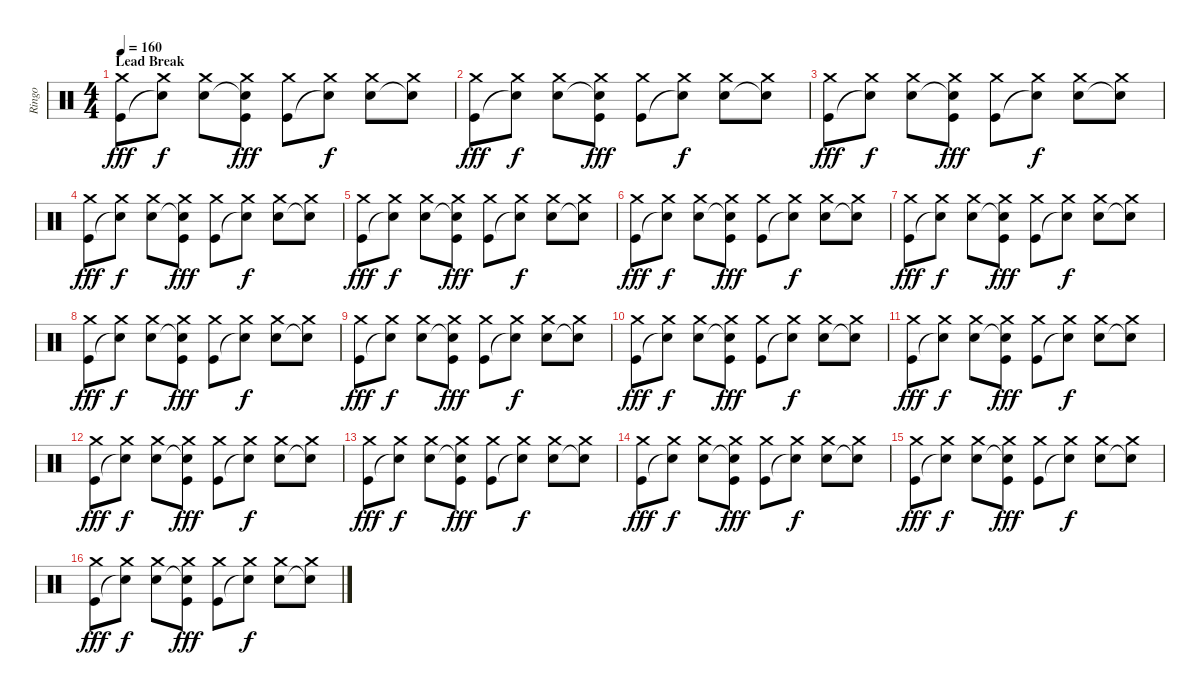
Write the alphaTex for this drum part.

\track ("Ringo" "Ringo") {instrument percussion}
\staff {score}
\articulation defaults
\ts (4 4)
\section ("" "Lead Break")
\tempo 160
\clef neutral
\ks c
("Crash medium (hit)" "Kick (hit)").8{dy fff} ("Crash medium (hit)" "Snare (hit)"{t}).8{dy f} ("Crash medium (hit)" "Snare (hit) 2").8 ("Crash medium (hit)" "Snare (hit)"{t} "Kick (hit)").8{dy fff} ("Crash medium (hit)" "Kick (hit)").8 ("Crash medium (hit)" "Snare (hit)"{t}).8{dy f} ("Crash medium (hit)" "Snare (hit) 2").8 ("Crash medium (hit)" "Snare (hit)"{t}).8 |
("Crash medium (hit)" "Kick (hit)").8{dy fff} ("Crash medium (hit)" "Snare (hit)"{t}).8{dy f} ("Crash medium (hit)" "Snare (hit) 2").8 ("Crash medium (hit)" "Snare (hit)"{t} "Kick (hit)").8{dy fff} ("Crash medium (hit)" "Kick (hit)").8 ("Crash medium (hit)" "Snare (hit)"{t}).8{dy f} ("Crash medium (hit)" "Snare (hit) 2").8 ("Crash medium (hit)" "Snare (hit)"{t}).8 |
("Crash medium (hit)" "Kick (hit)").8{dy fff} ("Crash medium (hit)" "Snare (hit)"{t}).8{dy f} ("Crash medium (hit)" "Snare (hit) 2").8 ("Crash medium (hit)" "Snare (hit)"{t} "Kick (hit)").8{dy fff} ("Crash medium (hit)" "Kick (hit)").8 ("Crash medium (hit)" "Snare (hit)"{t}).8{dy f} ("Crash medium (hit)" "Snare (hit) 2").8 ("Crash medium (hit)" "Snare (hit)"{t}).8 |
("Crash medium (hit)" "Kick (hit)").8{dy fff} ("Crash medium (hit)" "Snare (hit)"{t}).8{dy f} ("Crash medium (hit)" "Snare (hit) 2").8 ("Crash medium (hit)" "Snare (hit)"{t} "Kick (hit)").8{dy fff} ("Crash medium (hit)" "Kick (hit)").8 ("Crash medium (hit)" "Snare (hit)"{t}).8{dy f} ("Crash medium (hit)" "Snare (hit) 2").8 ("Crash medium (hit)" "Snare (hit)"{t}).8 |
("Crash medium (hit)" "Kick (hit)").8{dy fff} ("Crash medium (hit)" "Snare (hit)"{t}).8{dy f} ("Crash medium (hit)" "Snare (hit) 2").8 ("Crash medium (hit)" "Snare (hit)"{t} "Kick (hit)").8{dy fff} ("Crash medium (hit)" "Kick (hit)").8 ("Crash medium (hit)" "Snare (hit)"{t}).8{dy f} ("Crash medium (hit)" "Snare (hit) 2").8 ("Crash medium (hit)" "Snare (hit)"{t}).8 |
("Crash medium (hit)" "Kick (hit)").8{dy fff} ("Crash medium (hit)" "Snare (hit)"{t}).8{dy f} ("Crash medium (hit)" "Snare (hit) 2").8 ("Crash medium (hit)" "Snare (hit)"{t} "Kick (hit)").8{dy fff} ("Crash medium (hit)" "Kick (hit)").8 ("Crash medium (hit)" "Snare (hit)"{t}).8{dy f} ("Crash medium (hit)" "Snare (hit) 2").8 ("Crash medium (hit)" "Snare (hit)"{t}).8 |
("Crash medium (hit)" "Kick (hit)").8{dy fff} ("Crash medium (hit)" "Snare (hit)"{t}).8{dy f} ("Crash medium (hit)" "Snare (hit) 2").8 ("Crash medium (hit)" "Snare (hit)"{t} "Kick (hit)").8{dy fff} ("Crash medium (hit)" "Kick (hit)").8 ("Crash medium (hit)" "Snare (hit)"{t}).8{dy f} ("Crash medium (hit)" "Snare (hit) 2").8 ("Crash medium (hit)" "Snare (hit)"{t}).8 |
("Crash medium (hit)" "Kick (hit)").8{dy fff} ("Crash medium (hit)" "Snare (hit)"{t}).8{dy f} ("Crash medium (hit)" "Snare (hit) 2").8 ("Crash medium (hit)" "Snare (hit)"{t} "Kick (hit)").8{dy fff} ("Crash medium (hit)" "Kick (hit)").8 ("Crash medium (hit)" "Snare (hit)"{t}).8{dy f} ("Crash medium (hit)" "Snare (hit) 2").8 ("Crash medium (hit)" "Snare (hit)"{t}).8 |
("Crash medium (hit)" "Kick (hit)").8{dy fff} ("Crash medium (hit)" "Snare (hit)"{t}).8{dy f} ("Crash medium (hit)" "Snare (hit) 2").8 ("Crash medium (hit)" "Snare (hit)"{t} "Kick (hit)").8{dy fff} ("Crash medium (hit)" "Kick (hit)").8 ("Crash medium (hit)" "Snare (hit)"{t}).8{dy f} ("Crash medium (hit)" "Snare (hit) 2").8 ("Crash medium (hit)" "Snare (hit)"{t}).8 |
("Crash medium (hit)" "Kick (hit)").8{dy fff} ("Crash medium (hit)" "Snare (hit)"{t}).8{dy f} ("Crash medium (hit)" "Snare (hit) 2").8 ("Crash medium (hit)" "Snare (hit)"{t} "Kick (hit)").8{dy fff} ("Crash medium (hit)" "Kick (hit)").8 ("Crash medium (hit)" "Snare (hit)"{t}).8{dy f} ("Crash medium (hit)" "Snare (hit) 2").8 ("Crash medium (hit)" "Snare (hit)"{t}).8 |
("Crash medium (hit)" "Kick (hit)").8{dy fff} ("Crash medium (hit)" "Snare (hit)"{t}).8{dy f} ("Crash medium (hit)" "Snare (hit) 2").8 ("Crash medium (hit)" "Snare (hit)"{t} "Kick (hit)").8{dy fff} ("Crash medium (hit)" "Kick (hit)").8 ("Crash medium (hit)" "Snare (hit)"{t}).8{dy f} ("Crash medium (hit)" "Snare (hit) 2").8 ("Crash medium (hit)" "Snare (hit)"{t}).8 |
("Crash medium (hit)" "Kick (hit)").8{dy fff} ("Crash medium (hit)" "Snare (hit)"{t}).8{dy f} ("Crash medium (hit)" "Snare (hit) 2").8 ("Crash medium (hit)" "Snare (hit)"{t} "Kick (hit)").8{dy fff} ("Crash medium (hit)" "Kick (hit)").8 ("Crash medium (hit)" "Snare (hit)"{t}).8{dy f} ("Crash medium (hit)" "Snare (hit) 2").8 ("Crash medium (hit)" "Snare (hit)"{t}).8 |
("Crash medium (hit)" "Kick (hit)").8{dy fff} ("Crash medium (hit)" "Snare (hit)"{t}).8{dy f} ("Crash medium (hit)" "Snare (hit) 2").8 ("Crash medium (hit)" "Snare (hit)"{t} "Kick (hit)").8{dy fff} ("Crash medium (hit)" "Kick (hit)").8 ("Crash medium (hit)" "Snare (hit)"{t}).8{dy f} ("Crash medium (hit)" "Snare (hit) 2").8 ("Crash medium (hit)" "Snare (hit)"{t}).8 |
("Crash medium (hit)" "Kick (hit)").8{dy fff} ("Crash medium (hit)" "Snare (hit)"{t}).8{dy f} ("Crash medium (hit)" "Snare (hit) 2").8 ("Crash medium (hit)" "Snare (hit)"{t} "Kick (hit)").8{dy fff} ("Crash medium (hit)" "Kick (hit)").8 ("Crash medium (hit)" "Snare (hit)"{t}).8{dy f} ("Crash medium (hit)" "Snare (hit) 2").8 ("Crash medium (hit)" "Snare (hit)"{t}).8 |
("Crash medium (hit)" "Kick (hit)").8{dy fff} ("Crash medium (hit)" "Snare (hit)"{t}).8{dy f} ("Crash medium (hit)" "Snare (hit) 2").8 ("Crash medium (hit)" "Snare (hit)"{t} "Kick (hit)").8{dy fff} ("Crash medium (hit)" "Kick (hit)").8 ("Crash medium (hit)" "Snare (hit)"{t}).8{dy f} ("Crash medium (hit)" "Snare (hit) 2").8 ("Crash medium (hit)" "Snare (hit)"{t}).8 |
("Crash medium (hit)" "Kick (hit)").8{dy fff} ("Crash medium (hit)" "Snare (hit)"{t}).8{dy f} ("Crash medium (hit)" "Snare (hit) 2").8 ("Crash medium (hit)" "Snare (hit)"{t} "Kick (hit)").8{dy fff} ("Crash medium (hit)" "Kick (hit)").8 ("Crash medium (hit)" "Snare (hit)"{t}).8{dy f} ("Crash medium (hit)" "Snare (hit) 2").8 ("Crash medium (hit)" "Snare (hit)"{t}).8
